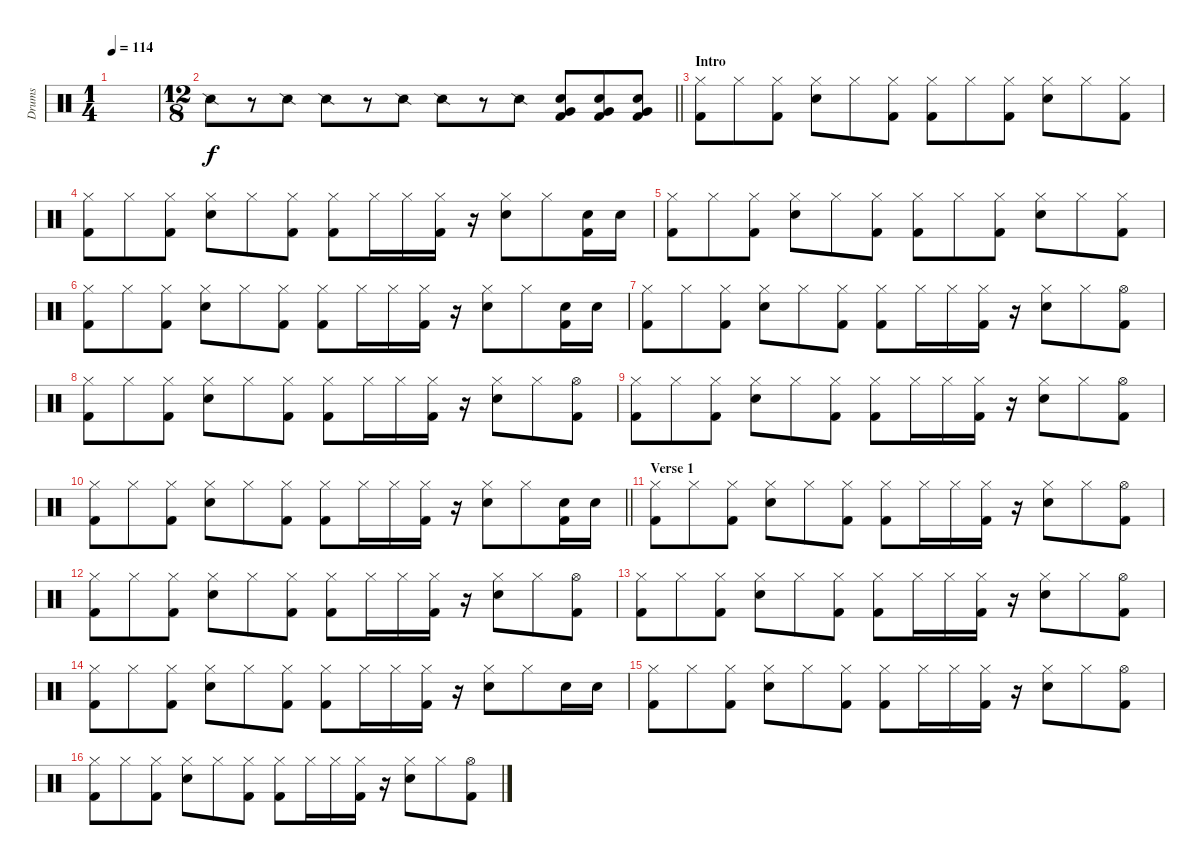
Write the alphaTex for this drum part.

\track ("Drums" "Drums") {instrument percussion}
\staff {score}
\articulation defaults
\ts (1 4)
\tempo 114
\clef neutral
\ks c
|
\ts (12 8)
\barLineRight lightlight "Snare (side stick) 2".8
r.8 "Snare (side stick) 2".8 "Snare (side stick) 2".8 r.8 "Snare (side stick) 2".8 "Snare (side stick) 2".8 r.8 "Snare (side stick) 2".8 ("Snare (hit) 2" "Very Low Tom (hit)" "Kick (hit) 2").8 ("Snare (hit) 2" "Very Low Tom (hit)" "Kick (hit) 2").8 ("Snare (hit) 2" "Very Low Tom (hit)" "Kick (hit) 2").8 |
\section ("" "Intro")
("Hi-Hat (closed)" "Kick (hit) 2").8 "Hi-Hat (closed)".8 ("Hi-Hat (closed)" "Kick (hit) 2").8 ("Hi-Hat (closed)" "Snare (hit) 2").8 "Hi-Hat (closed)".8 ("Hi-Hat (closed)" "Kick (hit) 2").8 ("Hi-Hat (closed)" "Kick (hit) 2").8 "Hi-Hat (closed)".8 ("Hi-Hat (closed)" "Kick (hit) 2").8 ("Hi-Hat (closed)" "Snare (hit) 2").8 "Hi-Hat (closed)".8 ("Hi-Hat (closed)" "Kick (hit) 2").8 |
("Hi-Hat (closed)" "Kick (hit) 2").8 "Hi-Hat (closed)".8 ("Hi-Hat (closed)" "Kick (hit) 2").8 ("Hi-Hat (closed)" "Snare (hit) 2").8 "Hi-Hat (closed)".8 ("Hi-Hat (closed)" "Kick (hit) 2").8 ("Hi-Hat (closed)" "Kick (hit) 2").8 "Hi-Hat (closed)".16 "Hi-Hat (closed)".16 ("Hi-Hat (closed)" "Kick (hit) 2").16 r.16 ("Hi-Hat (closed)" "Snare (hit) 2").8 "Hi-Hat (closed)".8 ("Snare (hit) 2" "Kick (hit) 2").16 "Snare (hit) 2".16 |
("Hi-Hat (closed)" "Kick (hit) 2").8 "Hi-Hat (closed)".8 ("Hi-Hat (closed)" "Kick (hit) 2").8 ("Hi-Hat (closed)" "Snare (hit) 2").8 "Hi-Hat (closed)".8 ("Hi-Hat (closed)" "Kick (hit) 2").8 ("Hi-Hat (closed)" "Kick (hit) 2").8 "Hi-Hat (closed)".8 ("Hi-Hat (closed)" "Kick (hit) 2").8 ("Hi-Hat (closed)" "Snare (hit) 2").8 "Hi-Hat (closed)".8 ("Hi-Hat (closed)" "Kick (hit) 2").8 |
("Hi-Hat (closed)" "Kick (hit) 2").8 "Hi-Hat (closed)".8 ("Hi-Hat (closed)" "Kick (hit) 2").8 ("Hi-Hat (closed)" "Snare (hit) 2").8 "Hi-Hat (closed)".8 ("Hi-Hat (closed)" "Kick (hit) 2").8 ("Hi-Hat (closed)" "Kick (hit) 2").8 "Hi-Hat (closed)".16 "Hi-Hat (closed)".16 ("Hi-Hat (closed)" "Kick (hit) 2").16 r.16 ("Hi-Hat (closed)" "Snare (hit) 2").8 "Hi-Hat (closed)".8 ("Snare (hit) 2" "Kick (hit) 2").16 "Snare (hit) 2".16 |
("Hi-Hat (closed)" "Kick (hit) 2").8 "Hi-Hat (closed)".8 ("Hi-Hat (closed)" "Kick (hit) 2").8 ("Hi-Hat (closed)" "Snare (hit) 2").8 "Hi-Hat (closed)".8 ("Hi-Hat (closed)" "Kick (hit) 2").8 ("Hi-Hat (closed)" "Kick (hit) 2").8 "Hi-Hat (closed)".16 "Hi-Hat (closed)".16 ("Hi-Hat (closed)" "Kick (hit) 2").16 r.16 ("Hi-Hat (closed)" "Snare (hit) 2").8 "Hi-Hat (closed)".8 ("Hi-Hat (open)" "Kick (hit) 2").8 |
("Hi-Hat (closed)" "Kick (hit) 2").8 "Hi-Hat (closed)".8 ("Hi-Hat (closed)" "Kick (hit) 2").8 ("Hi-Hat (closed)" "Snare (hit) 2").8 "Hi-Hat (closed)".8 ("Hi-Hat (closed)" "Kick (hit) 2").8 ("Hi-Hat (closed)" "Kick (hit) 2").8 "Hi-Hat (closed)".16 "Hi-Hat (closed)".16 ("Hi-Hat (closed)" "Kick (hit) 2").16 r.16 ("Hi-Hat (closed)" "Snare (hit) 2").8 "Hi-Hat (closed)".8 ("Hi-Hat (open)" "Kick (hit) 2").8 |
("Hi-Hat (closed)" "Kick (hit) 2").8 "Hi-Hat (closed)".8 ("Hi-Hat (closed)" "Kick (hit) 2").8 ("Hi-Hat (closed)" "Snare (hit) 2").8 "Hi-Hat (closed)".8 ("Hi-Hat (closed)" "Kick (hit) 2").8 ("Hi-Hat (closed)" "Kick (hit) 2").8 "Hi-Hat (closed)".16 "Hi-Hat (closed)".16 ("Hi-Hat (closed)" "Kick (hit) 2").16 r.16 ("Hi-Hat (closed)" "Snare (hit) 2").8 "Hi-Hat (closed)".8 ("Hi-Hat (open)" "Kick (hit) 2").8 |
\barLineRight lightlight
("Hi-Hat (closed)" "Kick (hit) 2").8 "Hi-Hat (closed)".8 ("Hi-Hat (closed)" "Kick (hit) 2").8 ("Hi-Hat (closed)" "Snare (hit) 2").8 "Hi-Hat (closed)".8 ("Hi-Hat (closed)" "Kick (hit) 2").8 ("Hi-Hat (closed)" "Kick (hit) 2").8 "Hi-Hat (closed)".16 "Hi-Hat (closed)".16 ("Hi-Hat (closed)" "Kick (hit) 2").16 r.16 ("Hi-Hat (closed)" "Snare (hit) 2").8 "Hi-Hat (closed)".8 ("Snare (hit) 2" "Kick (hit) 2").16 "Snare (hit) 2".16 |
\section ("" "Verse 1")
("Hi-Hat (closed)" "Kick (hit) 2").8 "Hi-Hat (closed)".8 ("Hi-Hat (closed)" "Kick (hit) 2").8 ("Hi-Hat (closed)" "Snare (hit) 2").8 "Hi-Hat (closed)".8 ("Hi-Hat (closed)" "Kick (hit) 2").8 ("Hi-Hat (closed)" "Kick (hit) 2").8 "Hi-Hat (closed)".16 "Hi-Hat (closed)".16 ("Hi-Hat (closed)" "Kick (hit) 2").16 r.16 ("Hi-Hat (closed)" "Snare (hit) 2").8 "Hi-Hat (closed)".8 ("Hi-Hat (open)" "Kick (hit) 2").8 |
("Hi-Hat (closed)" "Kick (hit) 2").8 "Hi-Hat (closed)".8 ("Hi-Hat (closed)" "Kick (hit) 2").8 ("Hi-Hat (closed)" "Snare (hit) 2").8 "Hi-Hat (closed)".8 ("Hi-Hat (closed)" "Kick (hit) 2").8 ("Hi-Hat (closed)" "Kick (hit) 2").8 "Hi-Hat (closed)".16 "Hi-Hat (closed)".16 ("Hi-Hat (closed)" "Kick (hit) 2").16 r.16 ("Hi-Hat (closed)" "Snare (hit) 2").8 "Hi-Hat (closed)".8 ("Hi-Hat (open)" "Kick (hit) 2").8 |
("Hi-Hat (closed)" "Kick (hit) 2").8 "Hi-Hat (closed)".8 ("Hi-Hat (closed)" "Kick (hit) 2").8 ("Hi-Hat (closed)" "Snare (hit) 2").8 "Hi-Hat (closed)".8 ("Hi-Hat (closed)" "Kick (hit) 2").8 ("Hi-Hat (closed)" "Kick (hit) 2").8 "Hi-Hat (closed)".16 "Hi-Hat (closed)".16 ("Hi-Hat (closed)" "Kick (hit) 2").16 r.16 ("Hi-Hat (closed)" "Snare (hit) 2").8 "Hi-Hat (closed)".8 ("Hi-Hat (open)" "Kick (hit) 2").8 |
("Hi-Hat (closed)" "Kick (hit) 2").8 "Hi-Hat (closed)".8 ("Hi-Hat (closed)" "Kick (hit) 2").8 ("Hi-Hat (closed)" "Snare (hit) 2").8 "Hi-Hat (closed)".8 ("Hi-Hat (closed)" "Kick (hit) 2").8 ("Hi-Hat (closed)" "Kick (hit) 2").8 "Hi-Hat (closed)".16 "Hi-Hat (closed)".16 ("Hi-Hat (closed)" "Kick (hit) 2").16 r.16 ("Hi-Hat (closed)" "Snare (hit) 2").8 "Hi-Hat (closed)".8 "Snare (hit) 2".16 "Snare (hit) 2".16 |
("Hi-Hat (closed)" "Kick (hit) 2").8 "Hi-Hat (closed)".8 ("Hi-Hat (closed)" "Kick (hit) 2").8 ("Hi-Hat (closed)" "Snare (hit) 2").8 "Hi-Hat (closed)".8 ("Hi-Hat (closed)" "Kick (hit) 2").8 ("Hi-Hat (closed)" "Kick (hit) 2").8 "Hi-Hat (closed)".16 "Hi-Hat (closed)".16 ("Hi-Hat (closed)" "Kick (hit) 2").16 r.16 ("Hi-Hat (closed)" "Snare (hit) 2").8 "Hi-Hat (closed)".8 ("Hi-Hat (open)" "Kick (hit) 2").8 |
("Hi-Hat (closed)" "Kick (hit) 2").8 "Hi-Hat (closed)".8 ("Hi-Hat (closed)" "Kick (hit) 2").8 ("Hi-Hat (closed)" "Snare (hit) 2").8 "Hi-Hat (closed)".8 ("Hi-Hat (closed)" "Kick (hit) 2").8 ("Hi-Hat (closed)" "Kick (hit) 2").8 "Hi-Hat (closed)".16 "Hi-Hat (closed)".16 ("Hi-Hat (closed)" "Kick (hit) 2").16 r.16 ("Hi-Hat (closed)" "Snare (hit) 2").8 "Hi-Hat (closed)".8 ("Hi-Hat (open)" "Kick (hit) 2").8
